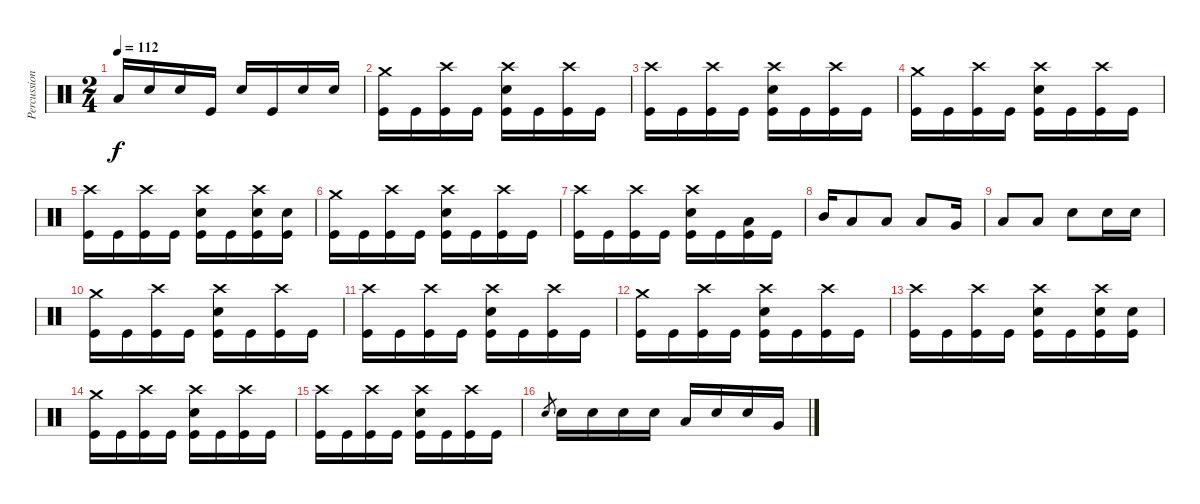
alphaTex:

\track ("Percussion" "Percussion") {instrument percussion}
\staff {score}
\articulation defaults
\ts (2 4)
\tempo 112
\clef neutral
\ks c "Low Floor Tom (hit)".16{dy f} "Electric Snare (hit)".16 "Electric Snare (hit)".16 "Kick (hit)".16 "Electric Snare (hit)".16 "Kick (hit)".16 "Electric Snare (hit)".16 "Electric Snare (hit)".16
|
("Crash medium (hit)" "Kick (hit)").16 "Kick (hit)".16 ("Crash high (hit)" "Kick (hit)").16 "Kick (hit)".16 ("Crash high (hit)" "Electric Snare (hit)" "Kick (hit)").16 "Kick (hit)".16 ("Crash high (hit)" "Kick (hit)").16 "Kick (hit)".16 |
("Crash high (hit)" "Kick (hit)").16 "Kick (hit)".16 ("Crash high (hit)" "Kick (hit)").16 "Kick (hit)".16 ("Crash high (hit)" "Electric Snare (hit)" "Kick (hit)").16 "Kick (hit)".16 ("Crash high (hit)" "Kick (hit)").16 "Kick (hit)".16 |
("Crash medium (hit)" "Kick (hit)").16 "Kick (hit)".16 ("Crash high (hit)" "Kick (hit)").16 "Kick (hit)".16 ("Crash high (hit)" "Electric Snare (hit)" "Kick (hit)").16 "Kick (hit)".16 ("Crash high (hit)" "Kick (hit)").16 "Kick (hit)".16 |
("Crash high (hit)" "Kick (hit)").16 "Kick (hit)".16 ("Crash high (hit)" "Kick (hit)").16 "Kick (hit)".16 ("Crash high (hit)" "Electric Snare (hit)" "Kick (hit)").16 "Kick (hit)".16 ("Crash high (hit)" "Electric Snare (hit)" "Kick (hit)").16 ("Electric Snare (hit)" "Kick (hit)").16 |
("Crash medium (hit)" "Kick (hit)").16 "Kick (hit)".16 ("Crash high (hit)" "Kick (hit)").16 "Kick (hit)".16 ("Crash high (hit)" "Electric Snare (hit)" "Kick (hit)").16 "Kick (hit)".16 ("Crash high (hit)" "Kick (hit)").16 "Kick (hit)".16 |
("Crash high (hit)" "Kick (hit)").16 "Kick (hit)".16 ("Crash high (hit)" "Kick (hit)").16 "Kick (hit)".16 ("Crash high (hit)" "Electric Snare (hit)" "Kick (hit)").16 "Kick (hit)".16 ("Low Tom (hit)" "Kick (hit)").16 "Kick (hit)".16 |
"Mid Tom (hit)".16 "Low Tom (hit)".8 "Low Tom (hit)".8 "Low Tom (hit)".8 "Very Low Tom (hit)".16 |
"Low Floor Tom (hit)".8 "Low Floor Tom (hit)".8 "Electric Snare (hit)".8 "Electric Snare (hit)".16 "Electric Snare (hit)".16 |
("Crash medium (hit)" "Kick (hit)").16 "Kick (hit)".16 ("Crash high (hit)" "Kick (hit)").16 "Kick (hit)".16 ("Crash high (hit)" "Electric Snare (hit)" "Kick (hit)").16 "Kick (hit)".16 ("Crash high (hit)" "Kick (hit)").16 "Kick (hit)".16 |
("Crash high (hit)" "Kick (hit)").16 "Kick (hit)".16 ("Crash high (hit)" "Kick (hit)").16 "Kick (hit)".16 ("Crash high (hit)" "Electric Snare (hit)" "Kick (hit)").16 "Kick (hit)".16 ("Crash high (hit)" "Kick (hit)").16 "Kick (hit)".16 |
("Crash medium (hit)" "Kick (hit)").16 "Kick (hit)".16 ("Crash high (hit)" "Kick (hit)").16 "Kick (hit)".16 ("Crash high (hit)" "Electric Snare (hit)" "Kick (hit)").16 "Kick (hit)".16 ("Crash high (hit)" "Kick (hit)").16 "Kick (hit)".16 |
("Crash high (hit)" "Kick (hit)").16 "Kick (hit)".16 ("Crash high (hit)" "Kick (hit)").16 "Kick (hit)".16 ("Crash high (hit)" "Electric Snare (hit)" "Kick (hit)").16 "Kick (hit)".16 ("Crash high (hit)" "Electric Snare (hit)" "Kick (hit)").16 ("Electric Snare (hit)" "Kick (hit)").16 |
("Crash medium (hit)" "Kick (hit)").16 "Kick (hit)".16 ("Crash high (hit)" "Kick (hit)").16 "Kick (hit)".16 ("Crash high (hit)" "Electric Snare (hit)" "Kick (hit)").16 "Kick (hit)".16 ("Crash high (hit)" "Kick (hit)").16 "Kick (hit)".16 |
("Crash high (hit)" "Kick (hit)").16 "Kick (hit)".16 ("Crash high (hit)" "Kick (hit)").16 "Kick (hit)".16 ("Crash high (hit)" "Electric Snare (hit)" "Kick (hit)").16 "Kick (hit)".16 ("Crash high (hit)" "Kick (hit)").16 "Kick (hit)".16 |
"Electric Snare (hit)".8{gr} "Electric Snare (hit)".16 "Electric Snare (hit)".16 "Electric Snare (hit)".16 "Electric Snare (hit)".16 "Low Floor Tom (hit)".16 "Electric Snare (hit)".16 "Electric Snare (hit)".16 "Very Low Tom (hit)".16
